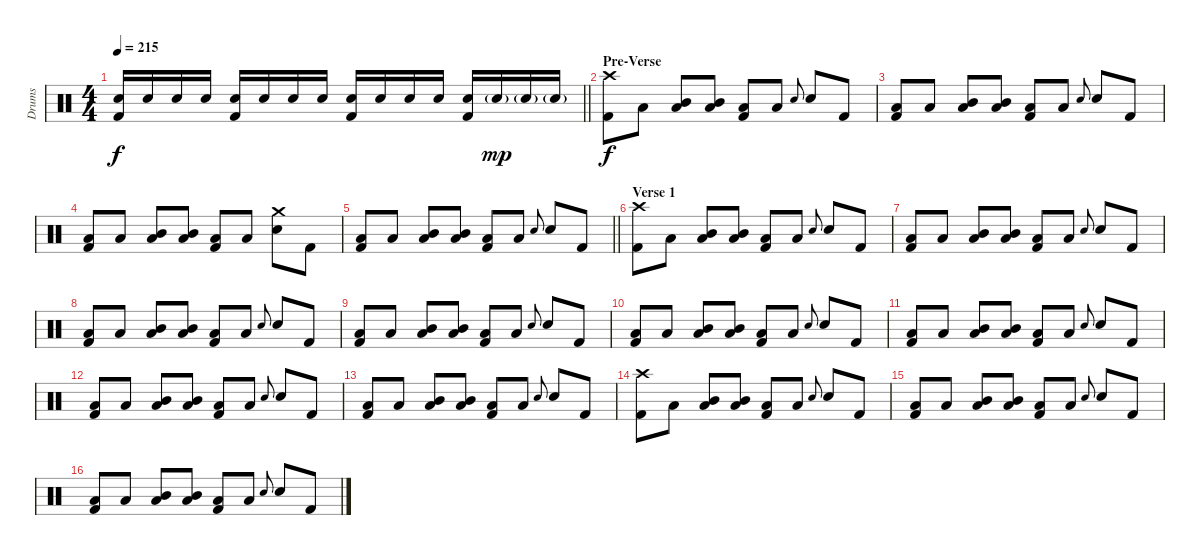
\track ("Drums" "Drums") {instrument percussion}
\staff {score}
\articulation defaults
\ts (4 4)
\tempo 215
\clef neutral
\barLineRight lightlight
\ks c
("Snare (hit) 2" "Kick (hit) 2").16{dy f} "Snare (hit) 2".16 "Snare (hit) 2".16 "Snare (hit) 2".16 ("Snare (hit) 2" "Kick (hit) 2").16 "Snare (hit) 2".16 "Snare (hit) 2".16 "Snare (hit) 2".16 ("Snare (hit) 2" "Kick (hit) 2").16 "Snare (hit) 2".16 "Snare (hit) 2".16 "Snare (hit) 2".16 ("Snare (hit) 2" "Kick (hit) 2").16 "Snare (hit) 2"{g}.16{dy mp} "Snare (hit) 2"{g}.16 "Snare (hit) 2"{g}.16 |
\section ("" "Pre-Verse")
("Crash high (hit)" "Kick (hit) 2").8{dy f} "Low Tom (hit)".8 ("Mid Tom (hit)" "Low Tom (hit)").8 ("Mid Tom (hit)" "Low Tom (hit)").8 ("Low Tom (hit)" "Kick (hit) 2").8 "Low Tom (hit)".8 "Snare (hit) 2".8{gr onbeat} "Snare (hit) 2".8 "Kick (hit) 2".8 |
("Low Tom (hit)" "Kick (hit) 2").8 "Low Tom (hit)".8 ("Mid Tom (hit)" "Low Tom (hit)").8 ("Mid Tom (hit)" "Low Tom (hit)").8 ("Low Tom (hit)" "Kick (hit) 2").8 "Low Tom (hit)".8 "Snare (hit) 2".8{gr onbeat} "Snare (hit) 2".8 "Kick (hit) 2".8 |
("Low Tom (hit)" "Kick (hit) 2").8 "Low Tom (hit)".8 ("Mid Tom (hit)" "Low Tom (hit)").8 ("Mid Tom (hit)" "Low Tom (hit)").8 ("Low Tom (hit)" "Kick (hit) 2").8 "Low Tom (hit)".8 ("Crash medium (hit)" "Snare (hit) 2").8 "Kick (hit) 2".8 |
\barLineRight lightlight
("Low Tom (hit)" "Kick (hit) 2").8 "Low Tom (hit)".8 ("Mid Tom (hit)" "Low Tom (hit)").8 ("Mid Tom (hit)" "Low Tom (hit)").8 ("Low Tom (hit)" "Kick (hit) 2").8 "Low Tom (hit)".8 "Snare (hit) 2".8{gr onbeat} "Snare (hit) 2".8 "Kick (hit) 2".8 |
\section ("" "Verse 1")
("Crash high (hit)" "Kick (hit) 2").8 "Low Tom (hit)".8 ("Mid Tom (hit)" "Low Tom (hit)").8 ("Mid Tom (hit)" "Low Tom (hit)").8 ("Low Tom (hit)" "Kick (hit) 2").8 "Low Tom (hit)".8 "Snare (hit) 2".8{gr onbeat} "Snare (hit) 2".8 "Kick (hit) 2".8 |
("Low Tom (hit)" "Kick (hit) 2").8 "Low Tom (hit)".8 ("Mid Tom (hit)" "Low Tom (hit)").8 ("Mid Tom (hit)" "Low Tom (hit)").8 ("Low Tom (hit)" "Kick (hit) 2").8 "Low Tom (hit)".8 "Snare (hit) 2".8{gr onbeat} "Snare (hit) 2".8 "Kick (hit) 2".8 |
("Low Tom (hit)" "Kick (hit) 2").8 "Low Tom (hit)".8 ("Mid Tom (hit)" "Low Tom (hit)").8 ("Mid Tom (hit)" "Low Tom (hit)").8 ("Low Tom (hit)" "Kick (hit) 2").8 "Low Tom (hit)".8 "Snare (hit) 2".8{gr onbeat} "Snare (hit) 2".8 "Kick (hit) 2".8 |
("Low Tom (hit)" "Kick (hit) 2").8 "Low Tom (hit)".8 ("Mid Tom (hit)" "Low Tom (hit)").8 ("Mid Tom (hit)" "Low Tom (hit)").8 ("Low Tom (hit)" "Kick (hit) 2").8 "Low Tom (hit)".8 "Snare (hit) 2".8{gr onbeat} "Snare (hit) 2".8 "Kick (hit) 2".8 |
("Low Tom (hit)" "Kick (hit) 2").8 "Low Tom (hit)".8 ("Mid Tom (hit)" "Low Tom (hit)").8 ("Mid Tom (hit)" "Low Tom (hit)").8 ("Low Tom (hit)" "Kick (hit) 2").8 "Low Tom (hit)".8 "Snare (hit) 2".8{gr onbeat} "Snare (hit) 2".8 "Kick (hit) 2".8 |
("Low Tom (hit)" "Kick (hit) 2").8 "Low Tom (hit)".8 ("Mid Tom (hit)" "Low Tom (hit)").8 ("Mid Tom (hit)" "Low Tom (hit)").8 ("Low Tom (hit)" "Kick (hit) 2").8 "Low Tom (hit)".8 "Snare (hit) 2".8{gr onbeat} "Snare (hit) 2".8 "Kick (hit) 2".8 |
("Low Tom (hit)" "Kick (hit) 2").8 "Low Tom (hit)".8 ("Mid Tom (hit)" "Low Tom (hit)").8 ("Mid Tom (hit)" "Low Tom (hit)").8 ("Low Tom (hit)" "Kick (hit) 2").8 "Low Tom (hit)".8 "Snare (hit) 2".8{gr onbeat} "Snare (hit) 2".8 "Kick (hit) 2".8 |
("Low Tom (hit)" "Kick (hit) 2").8 "Low Tom (hit)".8 ("Mid Tom (hit)" "Low Tom (hit)").8 ("Mid Tom (hit)" "Low Tom (hit)").8 ("Low Tom (hit)" "Kick (hit) 2").8 "Low Tom (hit)".8 "Snare (hit) 2".8{gr onbeat} "Snare (hit) 2".8 "Kick (hit) 2".8 |
("Crash high (hit)" "Kick (hit) 2").8 "Low Tom (hit)".8 ("Mid Tom (hit)" "Low Tom (hit)").8 ("Mid Tom (hit)" "Low Tom (hit)").8 ("Low Tom (hit)" "Kick (hit) 2").8 "Low Tom (hit)".8 "Snare (hit) 2".8{gr onbeat} "Snare (hit) 2".8 "Kick (hit) 2".8 |
("Low Tom (hit)" "Kick (hit) 2").8 "Low Tom (hit)".8 ("Mid Tom (hit)" "Low Tom (hit)").8 ("Mid Tom (hit)" "Low Tom (hit)").8 ("Low Tom (hit)" "Kick (hit) 2").8 "Low Tom (hit)".8 "Snare (hit) 2".8{gr onbeat} "Snare (hit) 2".8 "Kick (hit) 2".8 |
("Low Tom (hit)" "Kick (hit) 2").8 "Low Tom (hit)".8 ("Mid Tom (hit)" "Low Tom (hit)").8 ("Mid Tom (hit)" "Low Tom (hit)").8 ("Low Tom (hit)" "Kick (hit) 2").8 "Low Tom (hit)".8 "Snare (hit) 2".8{gr onbeat} "Snare (hit) 2".8 "Kick (hit) 2".8
